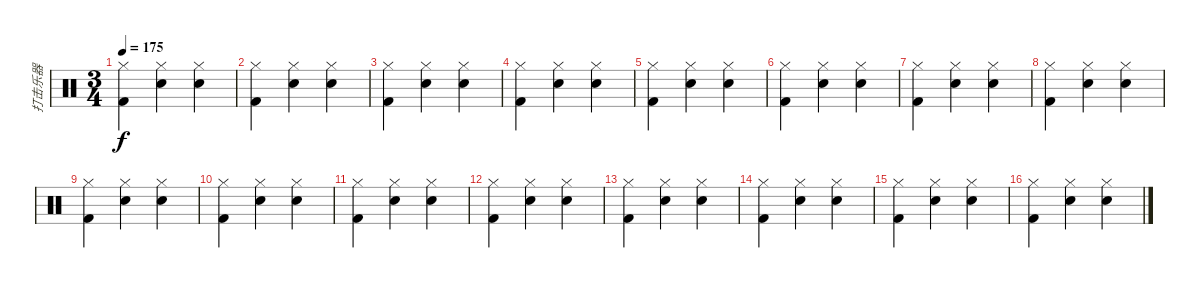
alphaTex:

\track ("打击乐器" "打击乐器") {instrument percussion}
\staff {score}
\articulation defaults
\ts (3 4)
\tempo 175
\clef neutral
\ks c
("Kick (hit) 2" "Hi-Hat (closed)").4{dy f} ("Hi-Hat (closed)" "Electric Snare (hit)").4 ("Hi-Hat (closed)" "Electric Snare (hit)").4 |
("Kick (hit) 2" "Hi-Hat (closed)").4 ("Hi-Hat (closed)" "Electric Snare (hit)").4 ("Hi-Hat (closed)" "Electric Snare (hit)").4 |
("Kick (hit) 2" "Hi-Hat (closed)").4 ("Hi-Hat (closed)" "Electric Snare (hit)").4 ("Hi-Hat (closed)" "Electric Snare (hit)").4 |
("Kick (hit) 2" "Hi-Hat (closed)").4 ("Hi-Hat (closed)" "Electric Snare (hit)").4 ("Hi-Hat (closed)" "Electric Snare (hit)").4 |
("Kick (hit) 2" "Hi-Hat (closed)").4 ("Hi-Hat (closed)" "Electric Snare (hit)").4 ("Hi-Hat (closed)" "Electric Snare (hit)").4 |
("Kick (hit) 2" "Hi-Hat (closed)").4 ("Hi-Hat (closed)" "Electric Snare (hit)").4 ("Hi-Hat (closed)" "Electric Snare (hit)").4 |
("Kick (hit) 2" "Hi-Hat (closed)").4 ("Hi-Hat (closed)" "Electric Snare (hit)").4 ("Hi-Hat (closed)" "Electric Snare (hit)").4 |
("Kick (hit) 2" "Hi-Hat (closed)").4 ("Hi-Hat (closed)" "Electric Snare (hit)").4 ("Hi-Hat (closed)" "Electric Snare (hit)").4 |
("Kick (hit) 2" "Hi-Hat (closed)").4 ("Hi-Hat (closed)" "Electric Snare (hit)").4 ("Hi-Hat (closed)" "Electric Snare (hit)").4 |
("Kick (hit) 2" "Hi-Hat (closed)").4 ("Hi-Hat (closed)" "Electric Snare (hit)").4 ("Hi-Hat (closed)" "Electric Snare (hit)").4 |
("Kick (hit) 2" "Hi-Hat (closed)").4 ("Hi-Hat (closed)" "Electric Snare (hit)").4 ("Hi-Hat (closed)" "Electric Snare (hit)").4 |
("Kick (hit) 2" "Hi-Hat (closed)").4 ("Hi-Hat (closed)" "Electric Snare (hit)").4 ("Hi-Hat (closed)" "Electric Snare (hit)").4 |
("Kick (hit) 2" "Hi-Hat (closed)").4 ("Hi-Hat (closed)" "Electric Snare (hit)").4 ("Hi-Hat (closed)" "Electric Snare (hit)").4 |
("Kick (hit) 2" "Hi-Hat (closed)").4 ("Hi-Hat (closed)" "Electric Snare (hit)").4 ("Hi-Hat (closed)" "Electric Snare (hit)").4 |
("Kick (hit) 2" "Hi-Hat (closed)").4 ("Hi-Hat (closed)" "Electric Snare (hit)").4 ("Hi-Hat (closed)" "Electric Snare (hit)").4 |
("Kick (hit) 2" "Hi-Hat (closed)").4 ("Hi-Hat (closed)" "Electric Snare (hit)").4 ("Hi-Hat (closed)" "Electric Snare (hit)").4
